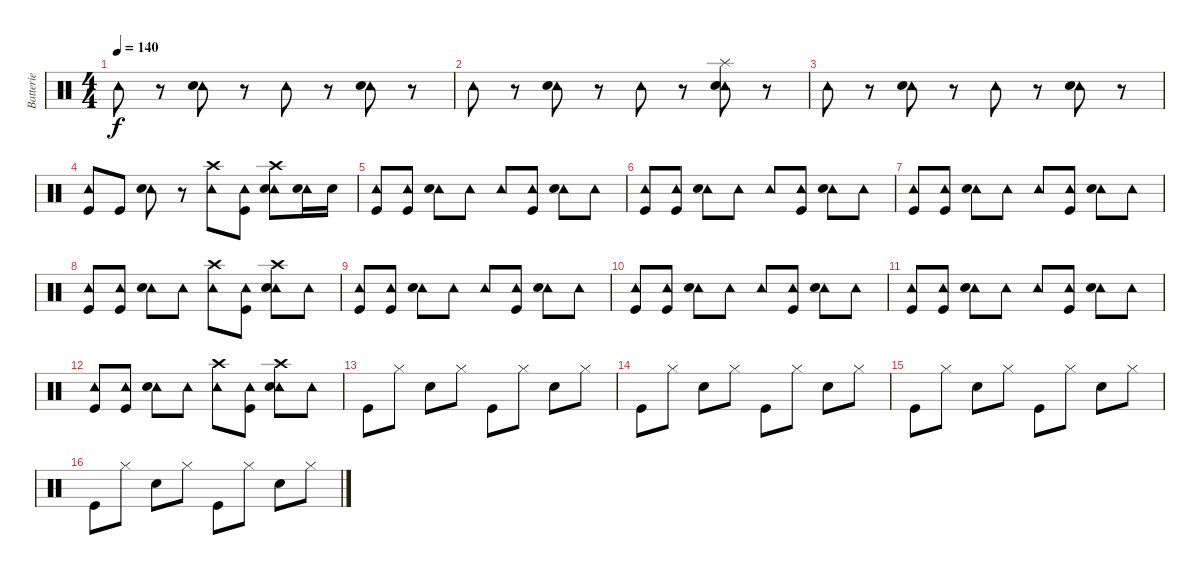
\track ("Batterie" "Batterie") {instrument percussion}
\staff {score}
\articulation defaults
\ts (4 4)
\tempo 140
\clef neutral
\ks c "Tambourine (hit)".8{dy f}
r.8 ("Tambourine (hit)" "Electric Snare (hit)").8 r.8 "Tambourine (hit)".8 r.8 ("Tambourine (hit)" "Electric Snare (hit)").8 r.8 |
"Tambourine (hit)".8 r.8 ("Tambourine (hit)" "Electric Snare (hit)").8 r.8 "Tambourine (hit)".8 r.8 ("Tambourine (hit)" "Splash (hit)" "Electric Snare (hit)").8 r.8 |
"Tambourine (hit)".8 r.8 ("Tambourine (hit)" "Electric Snare (hit)").8 r.8 "Tambourine (hit)".8 r.8 ("Tambourine (hit)" "Electric Snare (hit)").8 r.8 |
("Tambourine (hit)" "Kick (hit)").8 "Kick (hit)".8 ("Tambourine (hit)" "Electric Snare (hit)").8 r.8 ("Tambourine (hit)" "Crash high (hit)").8 ("Tambourine (hit)" "Kick (hit)").8 ("Tambourine (hit)" "Crash high (hit)" "Electric Snare (hit)").8 ("Tambourine (hit)" "Electric Snare (hit)").16 "Electric Snare (hit)".16 |
("Tambourine (hit)" "Kick (hit)").8 ("Tambourine (hit)" "Kick (hit)").8 ("Tambourine (hit)" "Electric Snare (hit)").8 "Tambourine (hit)".8 "Tambourine (hit)".8 ("Tambourine (hit)" "Kick (hit)").8 ("Tambourine (hit)" "Electric Snare (hit)").8 "Tambourine (hit)".8 |
("Tambourine (hit)" "Kick (hit)").8 ("Tambourine (hit)" "Kick (hit)").8 ("Tambourine (hit)" "Electric Snare (hit)").8 "Tambourine (hit)".8 "Tambourine (hit)".8 ("Tambourine (hit)" "Kick (hit)").8 ("Tambourine (hit)" "Electric Snare (hit)").8 "Tambourine (hit)".8 |
("Tambourine (hit)" "Kick (hit)").8 ("Tambourine (hit)" "Kick (hit)").8 ("Tambourine (hit)" "Electric Snare (hit)").8 "Tambourine (hit)".8 "Tambourine (hit)".8 ("Tambourine (hit)" "Kick (hit)").8 ("Tambourine (hit)" "Electric Snare (hit)").8 "Tambourine (hit)".8 |
("Tambourine (hit)" "Kick (hit)").8 ("Tambourine (hit)" "Kick (hit)").8 ("Tambourine (hit)" "Electric Snare (hit)").8 "Tambourine (hit)".8 ("Tambourine (hit)" "Crash high (hit)").8 ("Tambourine (hit)" "Kick (hit)").8 ("Tambourine (hit)" "Crash high (hit)" "Electric Snare (hit)").8 "Tambourine (hit)".8 |
("Tambourine (hit)" "Kick (hit)").8 ("Tambourine (hit)" "Kick (hit)").8 ("Tambourine (hit)" "Electric Snare (hit)").8 "Tambourine (hit)".8 "Tambourine (hit)".8 ("Tambourine (hit)" "Kick (hit)").8 ("Tambourine (hit)" "Electric Snare (hit)").8 "Tambourine (hit)".8 |
("Tambourine (hit)" "Kick (hit)").8 ("Tambourine (hit)" "Kick (hit)").8 ("Tambourine (hit)" "Electric Snare (hit)").8 "Tambourine (hit)".8 "Tambourine (hit)".8 ("Tambourine (hit)" "Kick (hit)").8 ("Tambourine (hit)" "Electric Snare (hit)").8 "Tambourine (hit)".8 |
("Tambourine (hit)" "Kick (hit)").8 ("Tambourine (hit)" "Kick (hit)").8 ("Tambourine (hit)" "Electric Snare (hit)").8 "Tambourine (hit)".8 "Tambourine (hit)".8 ("Tambourine (hit)" "Kick (hit)").8 ("Tambourine (hit)" "Electric Snare (hit)").8 "Tambourine (hit)".8 |
("Tambourine (hit)" "Kick (hit)").8 ("Tambourine (hit)" "Kick (hit)").8 ("Tambourine (hit)" "Electric Snare (hit)").8 "Tambourine (hit)".8 ("Tambourine (hit)" "Crash high (hit)").8 ("Tambourine (hit)" "Kick (hit)").8 ("Tambourine (hit)" "Crash high (hit)" "Electric Snare (hit)").8 "Tambourine (hit)".8 |
"Kick (hit)".8 "Hi-Hat (closed)".8 "Electric Snare (hit)".8 "Hi-Hat (closed)".8 "Kick (hit)".8 "Hi-Hat (closed)".8 "Electric Snare (hit)".8 "Hi-Hat (closed)".8 |
"Kick (hit)".8 "Hi-Hat (closed)".8 "Electric Snare (hit)".8 "Hi-Hat (closed)".8 "Kick (hit)".8 "Hi-Hat (closed)".8 "Electric Snare (hit)".8 "Hi-Hat (closed)".8 |
"Kick (hit)".8 "Hi-Hat (closed)".8 "Electric Snare (hit)".8 "Hi-Hat (closed)".8 "Kick (hit)".8 "Hi-Hat (closed)".8 "Electric Snare (hit)".8 "Hi-Hat (closed)".8 |
"Kick (hit)".8 "Hi-Hat (closed)".8 "Electric Snare (hit)".8 "Hi-Hat (closed)".8 "Kick (hit)".8 "Hi-Hat (closed)".8 "Electric Snare (hit)".8 "Hi-Hat (closed)".8
